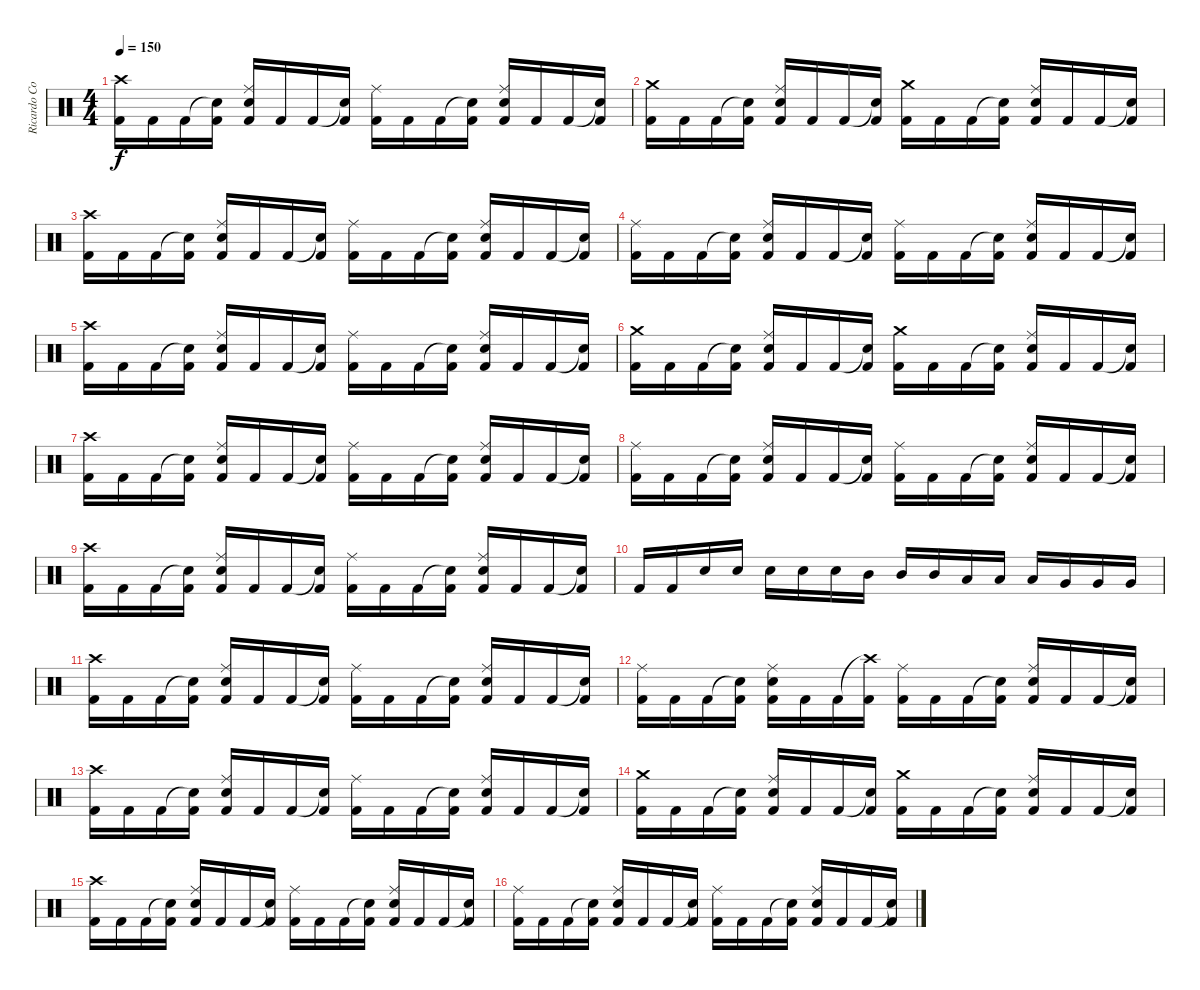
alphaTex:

\track ("Ricardo Confessori" "Ricardo Co") {instrument percussion}
\staff {score}
\articulation defaults
\ts (4 4)
\tempo 150
\clef neutral
\ks c
("Crash high (hit)" "Kick (hit) 2").16{dy f} "Kick (hit) 2".16 "Kick (hit) 2".16 ("Snare (hit)"{t} "Kick (hit) 2").16 ("Ride (middle)" "Electric Snare (hit)" "Kick (hit) 2").16 "Kick (hit) 2".16 "Kick (hit) 2".16 ("Snare (hit)"{t} "Kick (hit) 2").16 ("Ride (middle)" "Kick (hit) 2").16 "Kick (hit) 2".16 "Kick (hit) 2".16 ("Snare (hit)"{t} "Kick (hit) 2").16 ("Ride (middle)" "Electric Snare (hit)" "Kick (hit) 2").16 "Kick (hit) 2".16 "Kick (hit) 2".16 ("Snare (hit)"{t} "Kick (hit) 2").16 |
("Crash medium (hit)" "Kick (hit) 2").16 "Kick (hit) 2".16 "Kick (hit) 2".16 ("Snare (hit)"{t} "Kick (hit) 2").16 ("Ride (middle)" "Electric Snare (hit)" "Kick (hit) 2").16 "Kick (hit) 2".16 "Kick (hit) 2".16 ("Snare (hit)"{t} "Kick (hit) 2").16 ("Crash medium (hit)" "Kick (hit) 2").16 "Kick (hit) 2".16 "Kick (hit) 2".16 ("Snare (hit)"{t} "Kick (hit) 2").16 ("Ride (middle)" "Electric Snare (hit)" "Kick (hit) 2").16 "Kick (hit) 2".16 "Kick (hit) 2".16 ("Snare (hit)"{t} "Kick (hit) 2").16 |
("Crash high (hit)" "Kick (hit) 2").16 "Kick (hit) 2".16 "Kick (hit) 2".16 ("Snare (hit)"{t} "Kick (hit) 2").16 ("Ride (middle)" "Electric Snare (hit)" "Kick (hit) 2").16 "Kick (hit) 2".16 "Kick (hit) 2".16 ("Snare (hit)"{t} "Kick (hit) 2").16 ("Ride (middle)" "Kick (hit) 2").16 "Kick (hit) 2".16 "Kick (hit) 2".16 ("Snare (hit)"{t} "Kick (hit) 2").16 ("Ride (middle)" "Electric Snare (hit)" "Kick (hit) 2").16 "Kick (hit) 2".16 "Kick (hit) 2".16 ("Snare (hit)"{t} "Kick (hit) 2").16 |
("Ride (middle)" "Kick (hit) 2").16 "Kick (hit) 2".16 "Kick (hit) 2".16 ("Snare (hit)"{t} "Kick (hit) 2").16 ("Ride (middle)" "Electric Snare (hit)" "Kick (hit) 2").16 "Kick (hit) 2".16 "Kick (hit) 2".16 ("Snare (hit)"{t} "Kick (hit) 2").16 ("Ride (middle)" "Kick (hit) 2").16 "Kick (hit) 2".16 "Kick (hit) 2".16 ("Snare (hit)"{t} "Kick (hit) 2").16 ("Ride (middle)" "Electric Snare (hit)" "Kick (hit) 2").16 "Kick (hit) 2".16 "Kick (hit) 2".16 ("Snare (hit)"{t} "Kick (hit) 2").16 |
("Crash high (hit)" "Kick (hit) 2").16 "Kick (hit) 2".16 "Kick (hit) 2".16 ("Snare (hit)"{t} "Kick (hit) 2").16 ("Ride (middle)" "Electric Snare (hit)" "Kick (hit) 2").16 "Kick (hit) 2".16 "Kick (hit) 2".16 ("Snare (hit)"{t} "Kick (hit) 2").16 ("Ride (middle)" "Kick (hit) 2").16 "Kick (hit) 2".16 "Kick (hit) 2".16 ("Snare (hit)"{t} "Kick (hit) 2").16 ("Ride (middle)" "Electric Snare (hit)" "Kick (hit) 2").16 "Kick (hit) 2".16 "Kick (hit) 2".16 ("Snare (hit)"{t} "Kick (hit) 2").16 |
("Crash medium (hit)" "Kick (hit) 2").16 "Kick (hit) 2".16 "Kick (hit) 2".16 ("Snare (hit)"{t} "Kick (hit) 2").16 ("Ride (middle)" "Electric Snare (hit)" "Kick (hit) 2").16 "Kick (hit) 2".16 "Kick (hit) 2".16 ("Snare (hit)"{t} "Kick (hit) 2").16 ("Crash medium (hit)" "Kick (hit) 2").16 "Kick (hit) 2".16 "Kick (hit) 2".16 ("Snare (hit)"{t} "Kick (hit) 2").16 ("Ride (middle)" "Electric Snare (hit)" "Kick (hit) 2").16 "Kick (hit) 2".16 "Kick (hit) 2".16 ("Snare (hit)"{t} "Kick (hit) 2").16 |
("Crash high (hit)" "Kick (hit) 2").16 "Kick (hit) 2".16 "Kick (hit) 2".16 ("Snare (hit)"{t} "Kick (hit) 2").16 ("Ride (middle)" "Electric Snare (hit)" "Kick (hit) 2").16 "Kick (hit) 2".16 "Kick (hit) 2".16 ("Snare (hit)"{t} "Kick (hit) 2").16 ("Ride (middle)" "Kick (hit) 2").16 "Kick (hit) 2".16 "Kick (hit) 2".16 ("Snare (hit)"{t} "Kick (hit) 2").16 ("Ride (middle)" "Electric Snare (hit)" "Kick (hit) 2").16 "Kick (hit) 2".16 "Kick (hit) 2".16 ("Snare (hit)"{t} "Kick (hit) 2").16 |
("Ride (middle)" "Kick (hit) 2").16 "Kick (hit) 2".16 "Kick (hit) 2".16 ("Snare (hit)"{t} "Kick (hit) 2").16 ("Ride (middle)" "Electric Snare (hit)" "Kick (hit) 2").16 "Kick (hit) 2".16 "Kick (hit) 2".16 ("Snare (hit)"{t} "Kick (hit) 2").16 ("Ride (middle)" "Kick (hit) 2").16 "Kick (hit) 2".16 "Kick (hit) 2".16 ("Snare (hit)"{t} "Kick (hit) 2").16 ("Ride (middle)" "Electric Snare (hit)" "Kick (hit) 2").16 "Kick (hit) 2".16 "Kick (hit) 2".16 ("Snare (hit)"{t} "Kick (hit) 2").16 |
("Crash high (hit)" "Kick (hit) 2").16 "Kick (hit) 2".16 "Kick (hit) 2".16 ("Snare (hit)"{t} "Kick (hit) 2").16 ("Ride (middle)" "Electric Snare (hit)" "Kick (hit) 2").16 "Kick (hit) 2".16 "Kick (hit) 2".16 ("Snare (hit)"{t} "Kick (hit) 2").16 ("Ride (middle)" "Kick (hit) 2").16 "Kick (hit) 2".16 "Kick (hit) 2".16 ("Snare (hit)"{t} "Kick (hit) 2").16 ("Ride (middle)" "Electric Snare (hit)" "Kick (hit) 2").16 "Kick (hit) 2".16 "Kick (hit) 2".16 ("Snare (hit)"{t} "Kick (hit) 2").16 |
"Kick (hit) 2".16 "Kick (hit) 2".16 "Electric Snare (hit)".16 "Electric Snare (hit)".16 "Electric Snare (hit)".16 "Electric Snare (hit)".16 "Electric Snare (hit)".16 "Mid Tom (hit)".16 "Mid Tom (hit)".16 "Mid Tom (hit)".16 "Low Tom (hit)".16 "Low Tom (hit)".16 "Low Tom (hit)".16 "Very Low Tom (hit)".16 "Very Low Tom (hit)".16 "Very Low Tom (hit)".16 |
("Crash high (hit)" "Kick (hit) 2").16 "Kick (hit) 2".16 "Kick (hit) 2".16 ("Snare (hit)"{t} "Kick (hit) 2").16 ("Ride (middle)" "Electric Snare (hit)" "Kick (hit) 2").16 "Kick (hit) 2".16 "Kick (hit) 2".16 ("Snare (hit)"{t} "Kick (hit) 2").16 ("Ride (middle)" "Kick (hit) 2").16 "Kick (hit) 2".16 "Kick (hit) 2".16 ("Snare (hit)"{t} "Kick (hit) 2").16 ("Ride (middle)" "Electric Snare (hit)" "Kick (hit) 2").16 "Kick (hit) 2".16 "Kick (hit) 2".16 ("Snare (hit)"{t} "Kick (hit) 2").16 |
("Ride (middle)" "Kick (hit) 2").16 "Kick (hit) 2".16 "Kick (hit) 2".16 ("Snare (hit)"{t} "Kick (hit) 2").16 ("Ride (middle)" "Electric Snare (hit)" "Kick (hit) 2").16 "Kick (hit) 2".16 "Kick (hit) 2".16 ("Crash high (hit)"{t} "Kick (hit) 2").16 ("Ride (middle)" "Kick (hit) 2").16 "Kick (hit) 2".16 "Kick (hit) 2".16 ("Snare (hit)"{t} "Kick (hit) 2").16 ("Ride (middle)" "Electric Snare (hit)" "Kick (hit) 2").16 "Kick (hit) 2".16 "Kick (hit) 2".16 ("Snare (hit)"{t} "Kick (hit) 2").16 |
("Crash high (hit)" "Kick (hit) 2").16 "Kick (hit) 2".16 "Kick (hit) 2".16 ("Snare (hit)"{t} "Kick (hit) 2").16 ("Ride (middle)" "Electric Snare (hit)" "Kick (hit) 2").16 "Kick (hit) 2".16 "Kick (hit) 2".16 ("Snare (hit)"{t} "Kick (hit) 2").16 ("Ride (middle)" "Kick (hit) 2").16 "Kick (hit) 2".16 "Kick (hit) 2".16 ("Snare (hit)"{t} "Kick (hit) 2").16 ("Ride (middle)" "Electric Snare (hit)" "Kick (hit) 2").16 "Kick (hit) 2".16 "Kick (hit) 2".16 ("Snare (hit)"{t} "Kick (hit) 2").16 |
("Crash medium (hit)" "Kick (hit) 2").16 "Kick (hit) 2".16 "Kick (hit) 2".16 ("Snare (hit)"{t} "Kick (hit) 2").16 ("Ride (middle)" "Electric Snare (hit)" "Kick (hit) 2").16 "Kick (hit) 2".16 "Kick (hit) 2".16 ("Snare (hit)"{t} "Kick (hit) 2").16 ("Crash medium (hit)" "Kick (hit) 2").16 "Kick (hit) 2".16 "Kick (hit) 2".16 ("Snare (hit)"{t} "Kick (hit) 2").16 ("Ride (middle)" "Electric Snare (hit)" "Kick (hit) 2").16 "Kick (hit) 2".16 "Kick (hit) 2".16 ("Snare (hit)"{t} "Kick (hit) 2").16 |
("Crash high (hit)" "Kick (hit) 2").16 "Kick (hit) 2".16 "Kick (hit) 2".16 ("Snare (hit)"{t} "Kick (hit) 2").16 ("Ride (middle)" "Electric Snare (hit)" "Kick (hit) 2").16 "Kick (hit) 2".16 "Kick (hit) 2".16 ("Snare (hit)"{t} "Kick (hit) 2").16 ("Ride (middle)" "Kick (hit) 2").16 "Kick (hit) 2".16 "Kick (hit) 2".16 ("Snare (hit)"{t} "Kick (hit) 2").16 ("Ride (middle)" "Electric Snare (hit)" "Kick (hit) 2").16 "Kick (hit) 2".16 "Kick (hit) 2".16 ("Snare (hit)"{t} "Kick (hit) 2").16 |
("Ride (middle)" "Kick (hit) 2").16 "Kick (hit) 2".16 "Kick (hit) 2".16 ("Snare (hit)"{t} "Kick (hit) 2").16 ("Ride (middle)" "Electric Snare (hit)" "Kick (hit) 2").16 "Kick (hit) 2".16 "Kick (hit) 2".16 ("Snare (hit)"{t} "Kick (hit) 2").16 ("Ride (middle)" "Kick (hit) 2").16 "Kick (hit) 2".16 "Kick (hit) 2".16 ("Snare (hit)"{t} "Kick (hit) 2").16 ("Ride (middle)" "Electric Snare (hit)" "Kick (hit) 2").16 "Kick (hit) 2".16 "Kick (hit) 2".16 ("Snare (hit)"{t} "Kick (hit) 2").16
